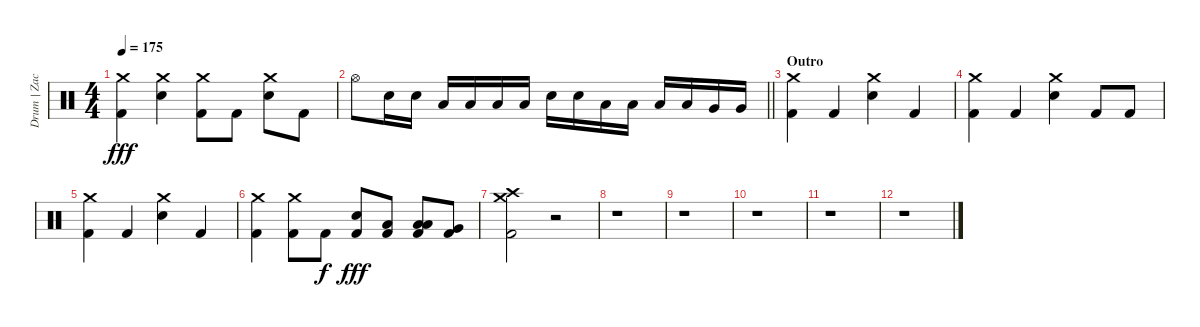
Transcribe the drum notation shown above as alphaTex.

\track ("Drum | Zac" "Drum | Zac") {instrument percussion}
\staff {score}
\articulation defaults
\ts (4 4)
\tempo 175
\clef neutral
\ks c
("Crash medium (hit)" "Kick (hit) 2").4{dy fff} ("Crash medium (hit)" "Electric Snare (hit)").4 ("Crash medium (hit)" "Kick (hit) 2").8 "Kick (hit) 2".8 ("Crash medium (hit)" "Electric Snare (hit)").8 "Kick (hit) 2".8 |
\barLineRight lightlight "Hi-Hat (open)".8 "Electric Snare (hit)".16 "Electric Snare (hit)".16 "Low Tom (hit)".16 "Low Tom (hit)".16 "Low Tom (hit)".16 "Low Tom (hit)".16 "Electric Snare (hit)".16 "Electric Snare (hit)".16 "Low Tom (hit)".16 "Low Tom (hit)".16 "Low Tom (hit)".16 "Low Tom (hit)".16 "Very Low Tom (hit)".16 "Very Low Tom (hit)".16
|
\section ("" "Outro")
("Crash medium (hit)" "Kick (hit) 2").4 "Kick (hit) 2".4 ("Crash medium (hit)" "Electric Snare (hit)").4 "Kick (hit) 2".4 |
("Crash medium (hit)" "Kick (hit) 2").4 "Kick (hit) 2".4 ("Crash medium (hit)" "Electric Snare (hit)").4 "Kick (hit) 2".8 "Kick (hit) 2".8 |
("Crash medium (hit)" "Kick (hit) 2").4 "Kick (hit) 2".4 ("Crash medium (hit)" "Electric Snare (hit)").4 "Kick (hit) 2".4 |
("Crash medium (hit)" "Kick (hit) 2").4 ("Crash medium (hit)" "Kick (hit) 2").8 "Kick (hit) 2".8{dy f} ("Snare (hit) 2" "Kick (hit) 2").8{dy fff} ("Low Tom (hit)" "Kick (hit) 2").8 ("Low Tom (hit)" "Low Floor Tom (hit)" "Kick (hit) 2").8 ("Very Low Tom (hit)" "Kick (hit) 2").8 |
("Crash medium (hit)" "Crash high (hit)" "Kick (hit) 2").2 r.2 |
r.1 |
r.1 |
r.1 |
r.1 |
r.1
